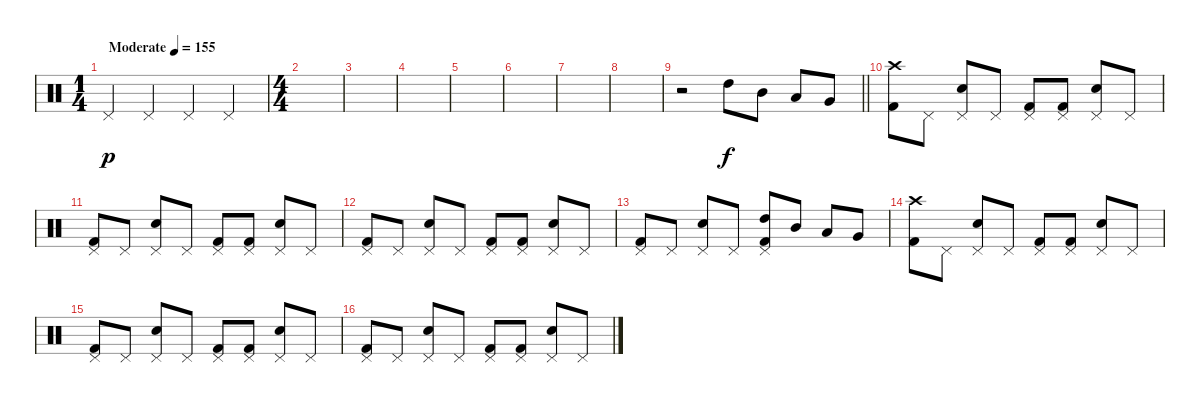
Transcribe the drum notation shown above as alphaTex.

\track "" {instrument percussion}
\staff {score}
\articulation defaults
\ts (1 4)
\tempo (155 "Moderate")
\clef neutral
\ks c "Pedal Hi-Hat (hit)".4{dy p} "Pedal Hi-Hat (hit)".4 "Pedal Hi-Hat (hit)".4 "Pedal Hi-Hat (hit)".4
|
\ts (4 4)
|
|
|
|
|
|
|
\barLineRight lightlight
r.2 "High Tom (hit)".8{dy f} "Mid Tom (hit)".8 "Low Tom (hit)".8 "Very Low Tom (hit)".8 |
\section ("" "")
("Crash high (hit)" "Kick (hit) 2").8 "Pedal Hi-Hat (hit)".8 ("Pedal Hi-Hat (hit)" "Electric Snare (hit)").8 "Pedal Hi-Hat (hit)".8 ("Pedal Hi-Hat (hit)" "Kick (hit) 2").8 ("Pedal Hi-Hat (hit)" "Kick (hit) 2").8 ("Pedal Hi-Hat (hit)" "Electric Snare (hit)").8 "Pedal Hi-Hat (hit)".8 |
("Pedal Hi-Hat (hit)" "Kick (hit) 2").8 "Pedal Hi-Hat (hit)".8 ("Pedal Hi-Hat (hit)" "Electric Snare (hit)").8 "Pedal Hi-Hat (hit)".8 ("Pedal Hi-Hat (hit)" "Kick (hit) 2").8 ("Pedal Hi-Hat (hit)" "Kick (hit) 2").8 ("Pedal Hi-Hat (hit)" "Electric Snare (hit)").8 "Pedal Hi-Hat (hit)".8 |
("Pedal Hi-Hat (hit)" "Kick (hit) 2").8 "Pedal Hi-Hat (hit)".8 ("Pedal Hi-Hat (hit)" "Electric Snare (hit)").8 "Pedal Hi-Hat (hit)".8 ("Pedal Hi-Hat (hit)" "Kick (hit) 2").8 ("Pedal Hi-Hat (hit)" "Kick (hit) 2").8 ("Pedal Hi-Hat (hit)" "Electric Snare (hit)").8 "Pedal Hi-Hat (hit)".8 |
("Pedal Hi-Hat (hit)" "Kick (hit) 2").8 "Pedal Hi-Hat (hit)".8 ("Pedal Hi-Hat (hit)" "Electric Snare (hit)").8 "Pedal Hi-Hat (hit)".8 ("Pedal Hi-Hat (hit)" "High Tom (hit)" "Kick (hit) 2").8 "Mid Tom (hit)".8 "Low Tom (hit)".8 "Very Low Tom (hit)".8 |
("Crash high (hit)" "Kick (hit) 2").8 "Pedal Hi-Hat (hit)".8 ("Pedal Hi-Hat (hit)" "Electric Snare (hit)").8 "Pedal Hi-Hat (hit)".8 ("Pedal Hi-Hat (hit)" "Kick (hit) 2").8 ("Pedal Hi-Hat (hit)" "Kick (hit) 2").8 ("Pedal Hi-Hat (hit)" "Electric Snare (hit)").8 "Pedal Hi-Hat (hit)".8 |
("Pedal Hi-Hat (hit)" "Kick (hit) 2").8 "Pedal Hi-Hat (hit)".8 ("Pedal Hi-Hat (hit)" "Electric Snare (hit)").8 "Pedal Hi-Hat (hit)".8 ("Pedal Hi-Hat (hit)" "Kick (hit) 2").8 ("Pedal Hi-Hat (hit)" "Kick (hit) 2").8 ("Pedal Hi-Hat (hit)" "Electric Snare (hit)").8 "Pedal Hi-Hat (hit)".8 |
("Pedal Hi-Hat (hit)" "Kick (hit) 2").8 "Pedal Hi-Hat (hit)".8 ("Pedal Hi-Hat (hit)" "Electric Snare (hit)").8 "Pedal Hi-Hat (hit)".8 ("Pedal Hi-Hat (hit)" "Kick (hit) 2").8 ("Pedal Hi-Hat (hit)" "Kick (hit) 2").8 ("Pedal Hi-Hat (hit)" "Electric Snare (hit)").8 "Pedal Hi-Hat (hit)".8
